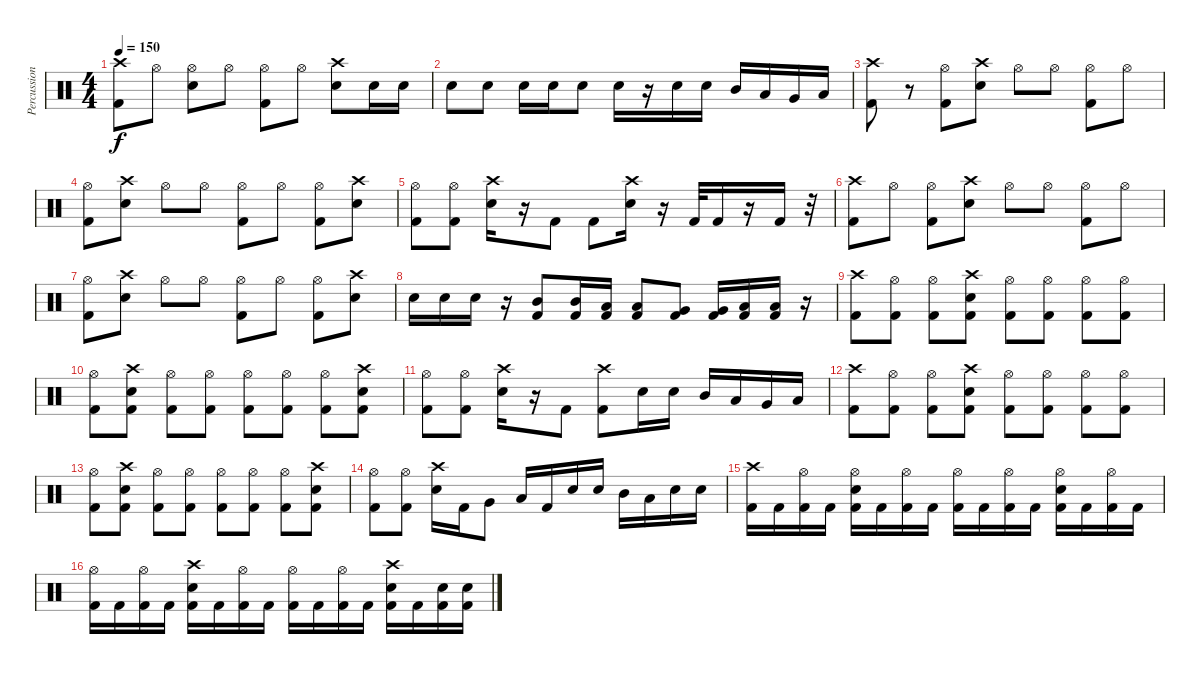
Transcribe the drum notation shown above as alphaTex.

\track ("Percussion" "Percussion") {instrument percussion}
\staff {score}
\articulation defaults
\ts (4 4)
\tempo 150
\clef neutral
\ks c
("Crash high (hit)" "Kick (hit) 2").8{dy f} "Hi-Hat (open)".8 ("Hi-Hat (open)" "Snare (hit) 2").8 "Hi-Hat (open)".8 ("Hi-Hat (open)" "Kick (hit) 2").8 "Hi-Hat (open)".8 ("Crash high (hit)" "Snare (hit) 2").8 "Snare (hit) 2".16 "Snare (hit) 2".16 |
"Snare (hit) 2".8 "Snare (hit) 2".8 "Snare (hit) 2".16 "Snare (hit) 2".16 "Snare (hit) 2".8 "Snare (hit) 2".16 r.16 "Snare (hit) 2".16 "Snare (hit) 2".16 "Mid Tom (hit)".16 "Low Tom (hit)".16 "Very Low Tom (hit)".16 "Low Floor Tom (hit)".16 |
("Crash high (hit)" "Kick (hit) 2").8 r.8 ("Hi-Hat (open)" "Kick (hit) 2").8 ("Crash high (hit)" "Snare (hit) 2").8 "Hi-Hat (open)".8 "Hi-Hat (open)".8 ("Hi-Hat (open)" "Kick (hit) 2").8 "Hi-Hat (open)".8 |
("Hi-Hat (open)" "Kick (hit) 2").8 ("Crash high (hit)" "Snare (hit) 2").8 "Hi-Hat (open)".8 "Hi-Hat (open)".8 ("Hi-Hat (open)" "Kick (hit) 2").8 "Hi-Hat (open)".8 ("Hi-Hat (open)" "Kick (hit) 2").8 ("Crash high (hit)" "Snare (hit) 2").8 |
("Hi-Hat (open)" "Kick (hit) 2").8 ("Hi-Hat (open)" "Kick (hit) 2").8 ("Crash high (hit)" "Snare (hit) 2").16 r.16 "Kick (hit) 2".8 "Kick (hit) 2".8 ("Crash high (hit)" "Snare (hit) 2").16 r.16 "Kick (hit) 2".32 "Kick (hit) 2".16 r.16 "Kick (hit) 2".16 r.32 |
("Crash high (hit)" "Kick (hit) 2").8 "Hi-Hat (open)".8 ("Hi-Hat (open)" "Kick (hit) 2").8 ("Crash high (hit)" "Snare (hit) 2").8 "Hi-Hat (open)".8 "Hi-Hat (open)".8 ("Hi-Hat (open)" "Kick (hit) 2").8 "Hi-Hat (open)".8 |
("Hi-Hat (open)" "Kick (hit) 2").8 ("Crash high (hit)" "Snare (hit) 2").8 "Hi-Hat (open)".8 "Hi-Hat (open)".8 ("Hi-Hat (open)" "Kick (hit) 2").8 "Hi-Hat (open)".8 ("Hi-Hat (open)" "Kick (hit) 2").8 ("Crash high (hit)" "Snare (hit) 2").8 |
"Snare (hit) 2".16 "Snare (hit) 2".16 "Snare (hit) 2".16 r.16 ("Mid Tom (hit)" "Kick (hit) 2").8 ("Mid Tom (hit)" "Kick (hit) 2").16 ("Low Tom (hit)" "Kick (hit) 2").16 ("Low Tom (hit)" "Kick (hit) 2").8 ("Very Low Tom (hit)" "Kick (hit) 2").8 ("Very Low Tom (hit)" "Kick (hit) 2").16 ("Low Floor Tom (hit)" "Kick (hit) 2").16 ("Low Floor Tom (hit)" "Kick (hit) 2").16 r.16 |
("Crash high (hit)" "Kick (hit) 2").8 ("Hi-Hat (open)" "Kick (hit) 2").8 ("Hi-Hat (open)" "Kick (hit) 2").8 ("Crash high (hit)" "Snare (hit) 2" "Kick (hit) 2").8 ("Hi-Hat (open)" "Kick (hit) 2").8 ("Hi-Hat (open)" "Kick (hit) 2").8 ("Hi-Hat (open)" "Kick (hit) 2").8 ("Hi-Hat (open)" "Kick (hit) 2").8 |
("Hi-Hat (open)" "Kick (hit) 2").8 ("Crash high (hit)" "Snare (hit) 2" "Kick (hit) 2").8 ("Hi-Hat (open)" "Kick (hit) 2").8 ("Hi-Hat (open)" "Kick (hit) 2").8 ("Hi-Hat (open)" "Kick (hit) 2").8 ("Hi-Hat (open)" "Kick (hit) 2").8 ("Hi-Hat (open)" "Kick (hit) 2").8 ("Crash high (hit)" "Snare (hit) 2" "Kick (hit) 2").8 |
("Hi-Hat (open)" "Kick (hit) 2").8 ("Hi-Hat (open)" "Kick (hit) 2").8 ("Crash high (hit)" "Snare (hit) 2").16 r.16 "Kick (hit) 2".8 ("Crash high (hit)" "Kick (hit) 2").8 "Snare (hit) 2".16 "Snare (hit) 2".16 "Mid Tom (hit)".16 "Low Tom (hit)".16 "Very Low Tom (hit)".16 "Low Floor Tom (hit)".16 |
("Crash high (hit)" "Kick (hit) 2").8 ("Hi-Hat (open)" "Kick (hit) 2").8 ("Hi-Hat (open)" "Kick (hit) 2").8 ("Crash high (hit)" "Snare (hit) 2" "Kick (hit) 2").8 ("Hi-Hat (open)" "Kick (hit) 2").8 ("Hi-Hat (open)" "Kick (hit) 2").8 ("Hi-Hat (open)" "Kick (hit) 2").8 ("Hi-Hat (open)" "Kick (hit) 2").8 |
("Hi-Hat (open)" "Kick (hit) 2").8 ("Crash high (hit)" "Snare (hit) 2" "Kick (hit) 2").8 ("Hi-Hat (open)" "Kick (hit) 2").8 ("Hi-Hat (open)" "Kick (hit) 2").8 ("Hi-Hat (open)" "Kick (hit) 2").8 ("Hi-Hat (open)" "Kick (hit) 2").8 ("Hi-Hat (open)" "Kick (hit) 2").8 ("Crash high (hit)" "Snare (hit) 2" "Kick (hit) 2").8 |
("Hi-Hat (open)" "Kick (hit) 2").8 ("Hi-Hat (open)" "Kick (hit) 2").8 ("Crash high (hit)" "Snare (hit) 2").16 "Kick (hit) 2".16 "Very Low Tom (hit)".8 "Low Floor Tom (hit)".16 "Kick (hit) 2".16 "Snare (hit) 2".16 "Snare (hit) 2".16 "Mid Tom (hit)".16 "Low Tom (hit)".16 "Snare (hit) 2".16 "Snare (hit) 2".16 |
("Crash high (hit)" "Kick (hit) 2").16 "Kick (hit) 2".16 ("Hi-Hat (open)" "Kick (hit) 2").16 "Kick (hit) 2".16 ("Hi-Hat (open)" "Snare (hit) 2" "Kick (hit) 2").16 "Kick (hit) 2".16 ("Hi-Hat (open)" "Kick (hit) 2").16 "Kick (hit) 2".16 ("Hi-Hat (open)" "Kick (hit) 2").16 "Kick (hit) 2".16 ("Hi-Hat (open)" "Kick (hit) 2").16 "Kick (hit) 2".16 ("Hi-Hat (open)" "Snare (hit) 2" "Kick (hit) 2").16 "Kick (hit) 2".16 ("Hi-Hat (open)" "Kick (hit) 2").16 "Kick (hit) 2".16 |
("Hi-Hat (open)" "Kick (hit) 2").16 "Kick (hit) 2".16 ("Hi-Hat (open)" "Kick (hit) 2").16 "Kick (hit) 2".16 ("Crash high (hit)" "Snare (hit) 2" "Kick (hit) 2").16 "Kick (hit) 2".16 ("Hi-Hat (open)" "Kick (hit) 2").16 "Kick (hit) 2".16 ("Hi-Hat (open)" "Kick (hit) 2").16 "Kick (hit) 2".16 ("Hi-Hat (open)" "Kick (hit) 2").16 "Kick (hit) 2".16 ("Crash high (hit)" "Snare (hit) 2" "Kick (hit) 2").16 "Kick (hit) 2".16 ("Snare (hit) 2" "Kick (hit) 2").16 ("Snare (hit) 2" "Kick (hit) 2").16
